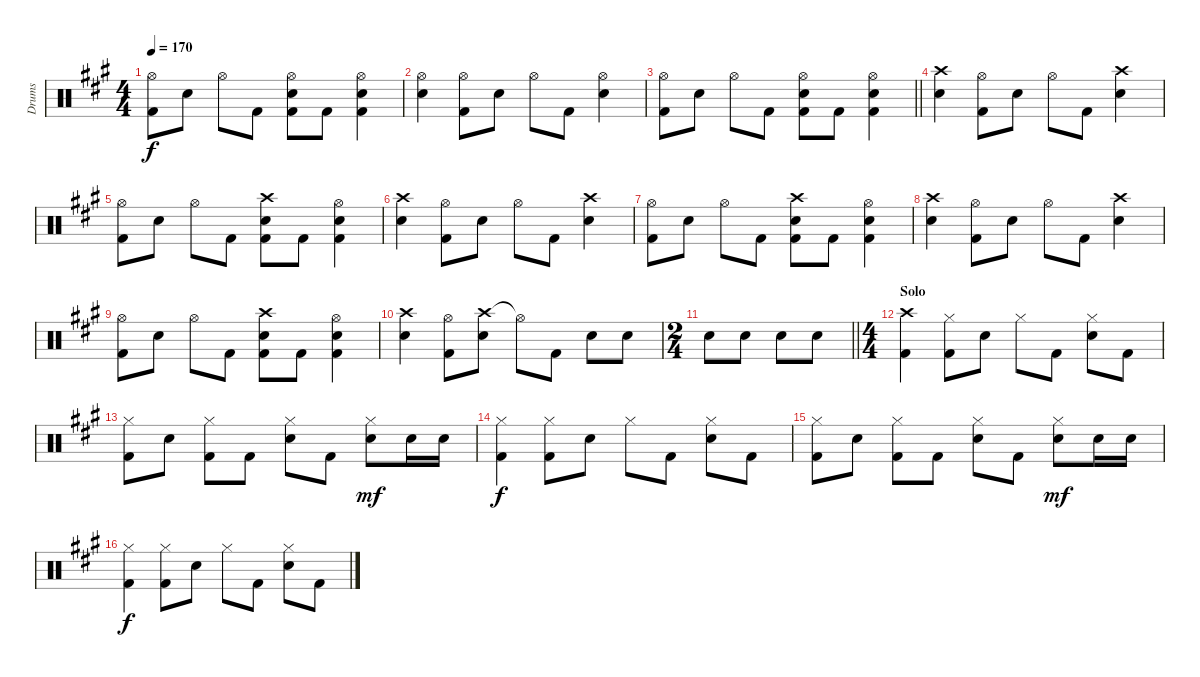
\track ("Drums" "Drums") {instrument percussion}
\staff {score}
\articulation defaults
\ts (4 4)
\tempo 170
\clef neutral
\ks f#minor
("Hi-Hat (open)" "Kick (hit) 2").8{dy f} "Snare (hit) 2".8 "Hi-Hat (open)".8 "Kick (hit) 2".8 ("Hi-Hat (open)" "Snare (hit) 2" "Kick (hit) 2").8 "Kick (hit) 2".8 ("Hi-Hat (open)" "Snare (hit) 2" "Kick (hit) 2").4 |
("Hi-Hat (open)" "Snare (hit) 2").4 ("Hi-Hat (open)" "Kick (hit) 2").8 "Snare (hit) 2".8 "Hi-Hat (open)".8 "Kick (hit) 2".8 ("Hi-Hat (open)" "Snare (hit) 2").4 |
\barLineRight lightlight
("Hi-Hat (open)" "Kick (hit) 2").8 "Snare (hit) 2".8 "Hi-Hat (open)".8 "Kick (hit) 2".8 ("Hi-Hat (open)" "Snare (hit) 2" "Kick (hit) 2").8 "Kick (hit) 2".8 ("Hi-Hat (open)" "Snare (hit) 2" "Kick (hit) 2").4 |
("Crash high (hit)" "Snare (hit) 2").4 ("Hi-Hat (open)" "Kick (hit) 2").8 "Snare (hit) 2".8 "Hi-Hat (open)".8 "Kick (hit) 2".8 ("Crash high (hit)" "Snare (hit) 2").4 |
("Hi-Hat (open)" "Kick (hit) 2").8 "Snare (hit) 2".8 "Hi-Hat (open)".8 "Kick (hit) 2".8 ("Crash high (hit)" "Snare (hit) 2" "Kick (hit) 2").8 "Kick (hit) 2".8 ("Hi-Hat (open)" "Snare (hit) 2" "Kick (hit) 2").4 |
("Crash high (hit)" "Snare (hit) 2").4 ("Hi-Hat (open)" "Kick (hit) 2").8 "Snare (hit) 2".8 "Hi-Hat (open)".8 "Kick (hit) 2".8 ("Crash high (hit)" "Snare (hit) 2").4 |
("Hi-Hat (open)" "Kick (hit) 2").8 "Snare (hit) 2".8 "Hi-Hat (open)".8 "Kick (hit) 2".8 ("Crash high (hit)" "Snare (hit) 2" "Kick (hit) 2").8 "Kick (hit) 2".8 ("Hi-Hat (open)" "Snare (hit) 2" "Kick (hit) 2").4 |
("Crash high (hit)" "Snare (hit) 2").4 ("Hi-Hat (open)" "Kick (hit) 2").8 "Snare (hit) 2".8 "Hi-Hat (open)".8 "Kick (hit) 2".8 ("Crash high (hit)" "Snare (hit) 2").4 |
("Hi-Hat (open)" "Kick (hit) 2").8 "Snare (hit) 2".8 "Hi-Hat (open)".8 "Kick (hit) 2".8 ("Crash high (hit)" "Snare (hit) 2" "Kick (hit) 2").8 "Kick (hit) 2".8 ("Hi-Hat (open)" "Snare (hit) 2" "Kick (hit) 2").4 |
("Crash high (hit)" "Snare (hit) 2").4 ("Hi-Hat (open)" "Kick (hit) 2").8 ("Crash high (hit)" "Snare (hit) 2").8 "Hi-Hat (open)"{t}.8 "Kick (hit) 2".8 "Snare (hit) 2".8 "Snare (hit) 2".8 |
\ts (2 4)
\barLineRight lightlight "Snare (hit) 2".8 "Snare (hit) 2".8 "Snare (hit) 2".8 "Snare (hit) 2".8
|
\ts (4 4)
\section ("" "Solo")
("Crash high (hit)" "Kick (hit) 2").4 ("Hi-Hat (closed)" "Kick (hit) 2").8 "Snare (hit) 2".8 "Hi-Hat (closed)".8 "Kick (hit) 2".8 ("Hi-Hat (closed)" "Snare (hit) 2").8 "Kick (hit) 2".8 |
("Hi-Hat (closed)" "Kick (hit) 2").8 "Snare (hit) 2".8 ("Hi-Hat (closed)" "Kick (hit) 2").8 "Kick (hit) 2".8 ("Hi-Hat (closed)" "Snare (hit) 2").8 "Kick (hit) 2".8 ("Hi-Hat (closed)" "Snare (hit) 2").8{dy mf} "Snare (hit) 2".16 "Snare (hit) 2".16 |
("Hi-Hat (closed)" "Kick (hit) 2").4{dy f} ("Hi-Hat (closed)" "Kick (hit) 2").8 "Snare (hit) 2".8 "Hi-Hat (closed)".8 "Kick (hit) 2".8 ("Hi-Hat (closed)" "Snare (hit) 2").8 "Kick (hit) 2".8 |
("Hi-Hat (closed)" "Kick (hit) 2").8 "Snare (hit) 2".8 ("Hi-Hat (closed)" "Kick (hit) 2").8 "Kick (hit) 2".8 ("Hi-Hat (closed)" "Snare (hit) 2").8 "Kick (hit) 2".8 ("Hi-Hat (closed)" "Snare (hit) 2").8{dy mf} "Snare (hit) 2".16 "Snare (hit) 2".16 |
("Hi-Hat (closed)" "Kick (hit) 2").4{dy f} ("Hi-Hat (closed)" "Kick (hit) 2").8 "Snare (hit) 2".8 "Hi-Hat (closed)".8 "Kick (hit) 2".8 ("Hi-Hat (closed)" "Snare (hit) 2").8 "Kick (hit) 2".8
